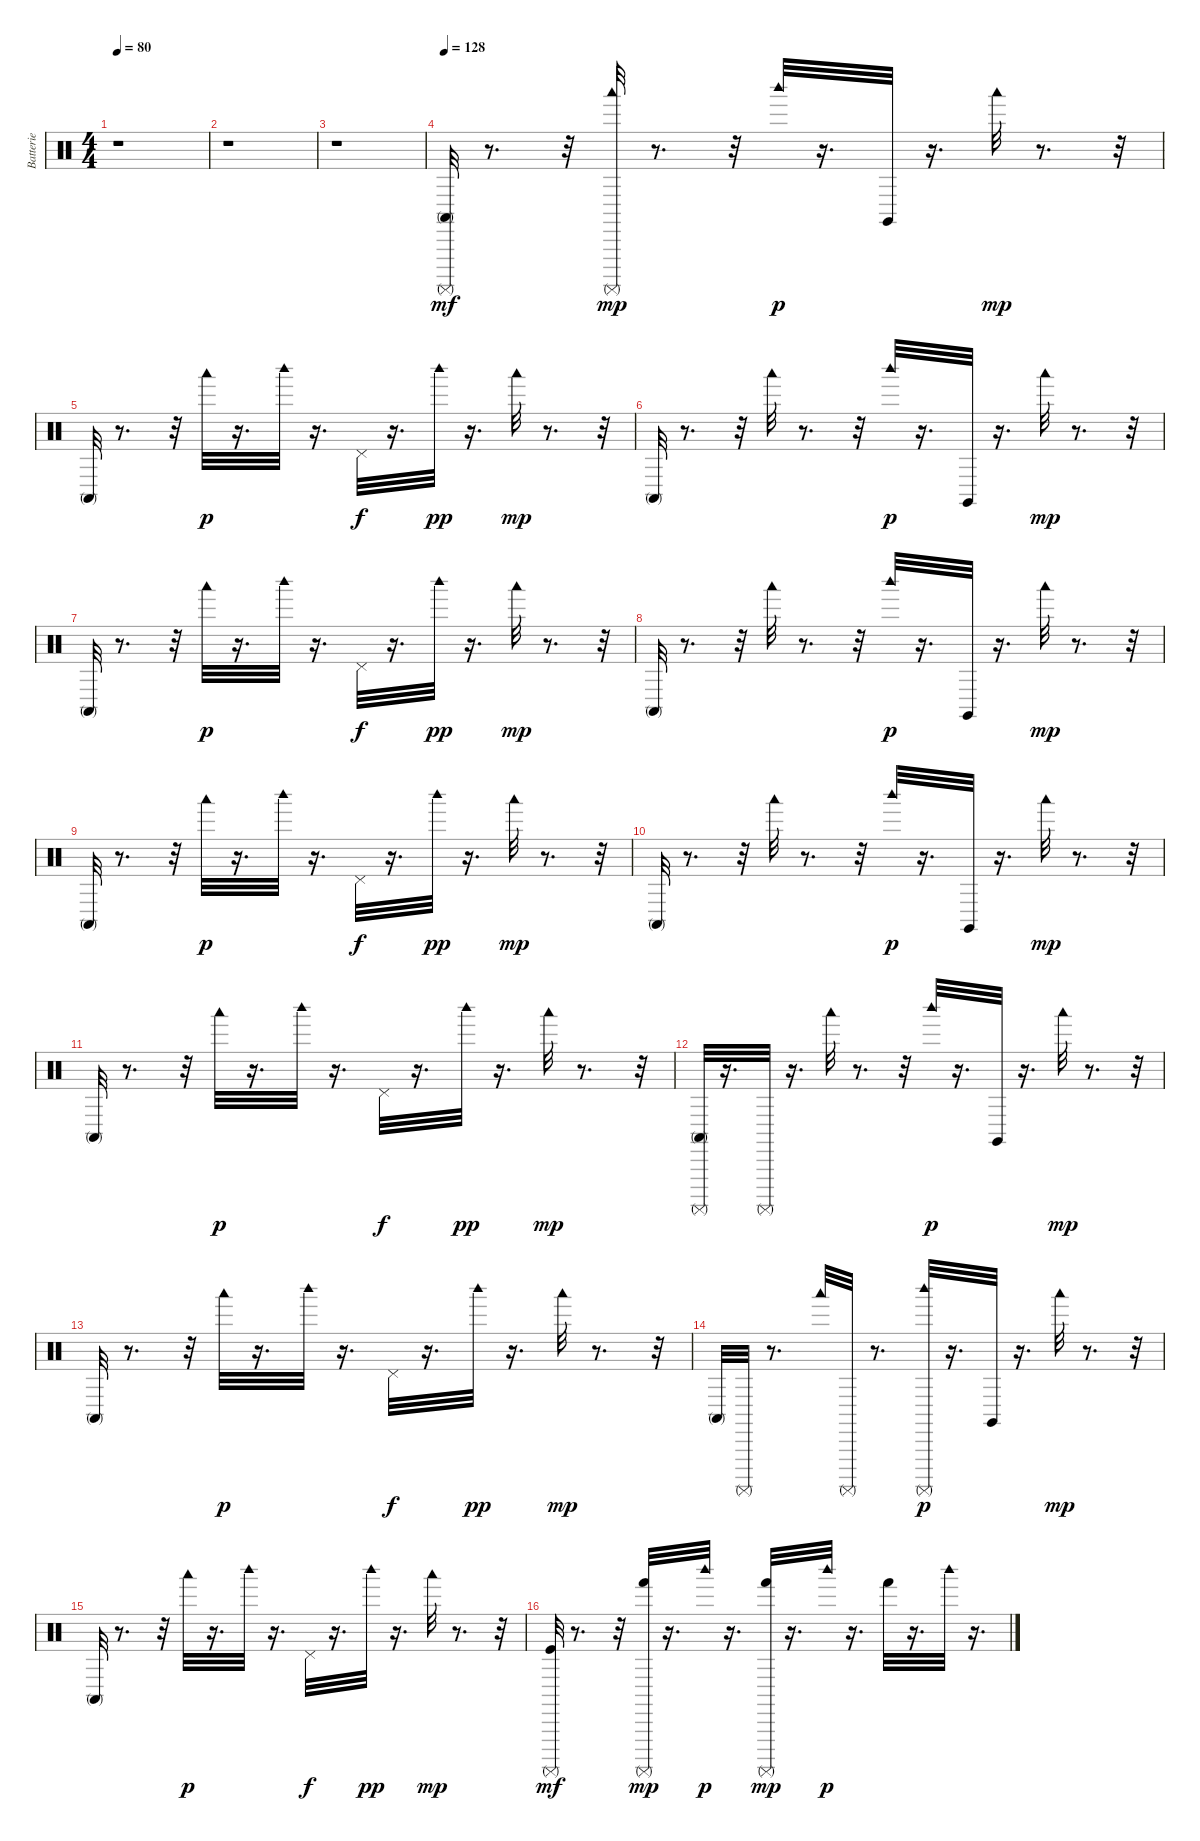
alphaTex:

\track ("Batterie" "Batterie") {instrument percussion}
\staff {score}
\articulation defaults
\ts (4 4)
\tempo 80
\clef neutral
\ks c
r.1{dy mf} |
r.1 |
r.1 |
\tempo 128
("Conga high (mute)" "Surdo (mute)").32 r.8{d} r.32 ("Surdo (mute)" "Woodblock low (hit)").32{dy mp} r.8{d} r.32 "Woodblock high (hit)".32{dy p} r.16{d} "Claves (hit)".32 r.16{d} "Woodblock low (hit)".32{dy mp} r.8{d} r.32 |
"Conga high (mute)".32 r.8{d} r.32 "Woodblock low (hit)".32{dy p} r.16{d} "Woodblock high (hit)".32 r.16{d} "Pedal Hi-Hat (hit)".32{dy f} r.16{d} "Woodblock high (hit)".32{dy pp} r.16{d} "Woodblock low (hit)".32{dy mp} r.8{d} r.32 |
"Conga high (mute)".32 r.8{d} r.32 "Woodblock low (hit)".32 r.8{d} r.32 "Woodblock high (hit)".32{dy p} r.16{d} "Claves (hit)".32 r.16{d} "Woodblock low (hit)".32{dy mp} r.8{d} r.32 |
"Conga high (mute)".32 r.8{d} r.32 "Woodblock low (hit)".32{dy p} r.16{d} "Woodblock high (hit)".32 r.16{d} "Pedal Hi-Hat (hit)".32{dy f} r.16{d} "Woodblock high (hit)".32{dy pp} r.16{d} "Woodblock low (hit)".32{dy mp} r.8{d} r.32 |
"Conga high (mute)".32 r.8{d} r.32 "Woodblock low (hit)".32 r.8{d} r.32 "Woodblock high (hit)".32{dy p} r.16{d} "Claves (hit)".32 r.16{d} "Woodblock low (hit)".32{dy mp} r.8{d} r.32 |
"Conga high (mute)".32 r.8{d} r.32 "Woodblock low (hit)".32{dy p} r.16{d} "Woodblock high (hit)".32 r.16{d} "Pedal Hi-Hat (hit)".32{dy f} r.16{d} "Woodblock high (hit)".32{dy pp} r.16{d} "Woodblock low (hit)".32{dy mp} r.8{d} r.32 |
"Conga high (mute)".32 r.8{d} r.32 "Woodblock low (hit)".32 r.8{d} r.32 "Woodblock high (hit)".32{dy p} r.16{d} "Claves (hit)".32 r.16{d} "Woodblock low (hit)".32{dy mp} r.8{d} r.32 |
"Conga high (mute)".32 r.8{d} r.32 "Woodblock low (hit)".32{dy p} r.16{d} "Woodblock high (hit)".32 r.16{d} "Pedal Hi-Hat (hit)".32{dy f} r.16{d} "Woodblock high (hit)".32{dy pp} r.16{d} "Woodblock low (hit)".32{dy mp} r.8{d} r.32 |
("Conga high (mute)" "Surdo (mute)").32 r.16{d} "Surdo (mute)".32 r.16{d} "Woodblock low (hit)".32 r.8{d} r.32 "Woodblock high (hit)".32{dy p} r.16{d} "Claves (hit)".32 r.16{d} "Woodblock low (hit)".32{dy mp} r.8{d} r.32 |
"Conga high (mute)".32 r.8{d} r.32 "Woodblock low (hit)".32{dy p} r.16{d} "Woodblock high (hit)".32 r.16{d} "Pedal Hi-Hat (hit)".32{dy f} r.16{d} "Woodblock high (hit)".32{dy pp} r.16{d} "Woodblock low (hit)".32{dy mp} r.8{d} r.32 |
"Conga high (mute)".32 "Surdo (mute)".32 r.8{d} "Woodblock low (hit)".32 "Surdo (mute)".32 r.8{d} ("Surdo (mute)" "Woodblock high (hit)").32{dy p} r.16{d} "Claves (hit)".32 r.16{d} "Woodblock low (hit)".32{dy mp} r.8{d} r.32 |
"Conga high (mute)".32 r.8{d} r.32 "Woodblock low (hit)".32{dy p} r.16{d} "Woodblock high (hit)".32 r.16{d} "Pedal Hi-Hat (hit)".32{dy f} r.16{d} "Woodblock high (hit)".32{dy pp} r.16{d} "Woodblock low (hit)".32{dy mp} r.8{d} r.32 |
("Kick (hit)" "Surdo (mute)").32{dy mf} r.8{d} r.32 ("Hand (hit)" "Surdo (mute)").32{dy mp} r.16{d} "Woodblock high (hit)".32{dy p} r.16{d} ("Hand (hit)" "Surdo (mute)").32{dy mp} r.16{d} "Woodblock high (hit)".32{dy p} r.16{d} "Hand (hit)".32 r.16{d} "Woodblock high (hit)".32 r.16{d}
